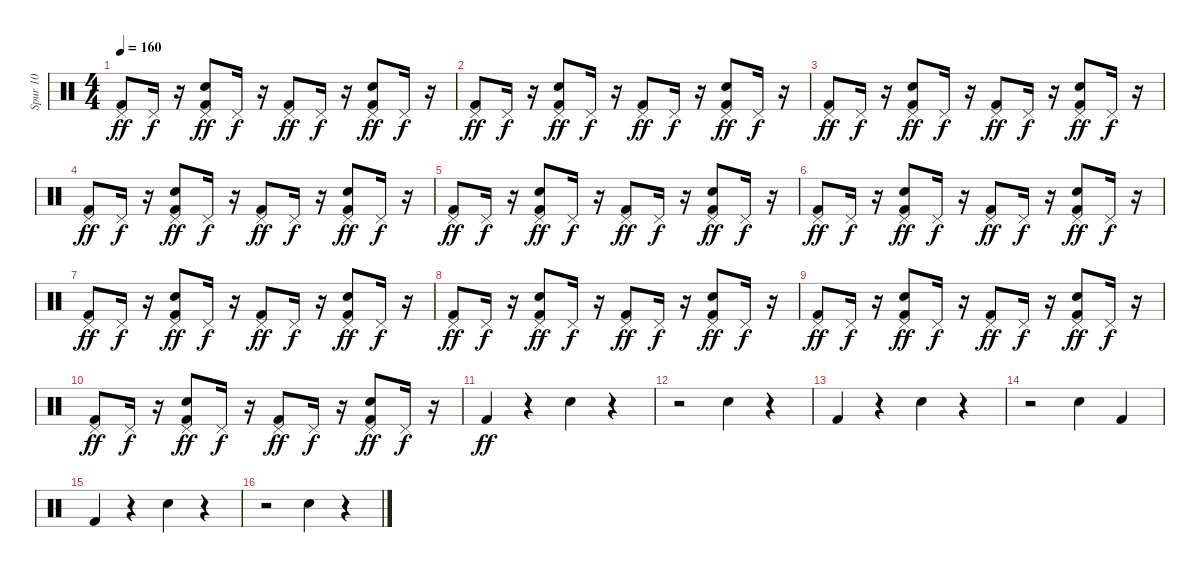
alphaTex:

\track ("Spur 10" "Spur 10") {instrument percussion}
\staff {score}
\articulation defaults
\ts (4 4)
\tempo 160
\clef neutral
\ks c
("Kick (hit) 2" "Pedal Hi-Hat (hit)").8{dy ff} "Pedal Hi-Hat (hit)".16{dy f} r.16 ("Snare (hit) 2" "Kick (hit) 2" "Pedal Hi-Hat (hit)").8{dy ff} "Pedal Hi-Hat (hit)".16{dy f} r.16 ("Kick (hit) 2" "Pedal Hi-Hat (hit)").8{dy ff} "Pedal Hi-Hat (hit)".16{dy f} r.16 ("Kick (hit) 2" "Snare (hit) 2" "Pedal Hi-Hat (hit)").8{dy ff} "Pedal Hi-Hat (hit)".16{dy f} r.16 |
("Kick (hit) 2" "Pedal Hi-Hat (hit)").8{dy ff} "Pedal Hi-Hat (hit)".16{dy f} r.16 ("Snare (hit) 2" "Kick (hit) 2" "Pedal Hi-Hat (hit)").8{dy ff} "Pedal Hi-Hat (hit)".16{dy f} r.16 ("Kick (hit) 2" "Pedal Hi-Hat (hit)").8{dy ff} "Pedal Hi-Hat (hit)".16{dy f} r.16 ("Kick (hit) 2" "Snare (hit) 2" "Pedal Hi-Hat (hit)").8{dy ff} "Pedal Hi-Hat (hit)".16{dy f} r.16 |
("Kick (hit) 2" "Pedal Hi-Hat (hit)").8{dy ff} "Pedal Hi-Hat (hit)".16{dy f} r.16 ("Kick (hit) 2" "Snare (hit) 2" "Pedal Hi-Hat (hit)").8{dy ff} "Pedal Hi-Hat (hit)".16{dy f} r.16 ("Kick (hit) 2" "Pedal Hi-Hat (hit)").8{dy ff} "Pedal Hi-Hat (hit)".16{dy f} r.16 ("Kick (hit) 2" "Snare (hit) 2" "Pedal Hi-Hat (hit)").8{dy ff} "Pedal Hi-Hat (hit)".16{dy f} r.16 |
("Kick (hit) 2" "Pedal Hi-Hat (hit)").8{dy ff} "Pedal Hi-Hat (hit)".16{dy f} r.16 ("Kick (hit) 2" "Snare (hit) 2" "Pedal Hi-Hat (hit)").8{dy ff} "Pedal Hi-Hat (hit)".16{dy f} r.16 ("Kick (hit) 2" "Pedal Hi-Hat (hit)").8{dy ff} "Pedal Hi-Hat (hit)".16{dy f} r.16 ("Kick (hit) 2" "Snare (hit) 2" "Pedal Hi-Hat (hit)").8{dy ff} "Pedal Hi-Hat (hit)".16{dy f} r.16 |
("Kick (hit) 2" "Pedal Hi-Hat (hit)").8{dy ff} "Pedal Hi-Hat (hit)".16{dy f} r.16 ("Kick (hit) 2" "Snare (hit) 2" "Pedal Hi-Hat (hit)").8{dy ff} "Pedal Hi-Hat (hit)".16{dy f} r.16 ("Kick (hit) 2" "Pedal Hi-Hat (hit)").8{dy ff} "Pedal Hi-Hat (hit)".16{dy f} r.16 ("Snare (hit) 2" "Kick (hit) 2" "Pedal Hi-Hat (hit)").8{dy ff} "Pedal Hi-Hat (hit)".16{dy f} r.16 |
("Kick (hit) 2" "Pedal Hi-Hat (hit)").8{dy ff} "Pedal Hi-Hat (hit)".16{dy f} r.16 ("Kick (hit) 2" "Snare (hit) 2" "Pedal Hi-Hat (hit)").8{dy ff} "Pedal Hi-Hat (hit)".16{dy f} r.16 ("Kick (hit) 2" "Pedal Hi-Hat (hit)").8{dy ff} "Pedal Hi-Hat (hit)".16{dy f} r.16 ("Kick (hit) 2" "Snare (hit) 2" "Pedal Hi-Hat (hit)").8{dy ff} "Pedal Hi-Hat (hit)".16{dy f} r.16 |
("Kick (hit) 2" "Pedal Hi-Hat (hit)").8{dy ff} "Pedal Hi-Hat (hit)".16{dy f} r.16 ("Kick (hit) 2" "Snare (hit) 2" "Pedal Hi-Hat (hit)").8{dy ff} "Pedal Hi-Hat (hit)".16{dy f} r.16 ("Kick (hit) 2" "Pedal Hi-Hat (hit)").8{dy ff} "Pedal Hi-Hat (hit)".16{dy f} r.16 ("Snare (hit) 2" "Kick (hit) 2" "Pedal Hi-Hat (hit)").8{dy ff} "Pedal Hi-Hat (hit)".16{dy f} r.16 |
("Kick (hit) 2" "Pedal Hi-Hat (hit)").8{dy ff} "Pedal Hi-Hat (hit)".16{dy f} r.16 ("Snare (hit) 2" "Kick (hit) 2" "Pedal Hi-Hat (hit)").8{dy ff} "Pedal Hi-Hat (hit)".16{dy f} r.16 ("Kick (hit) 2" "Pedal Hi-Hat (hit)").8{dy ff} "Pedal Hi-Hat (hit)".16{dy f} r.16 ("Kick (hit) 2" "Snare (hit) 2" "Pedal Hi-Hat (hit)").8{dy ff} "Pedal Hi-Hat (hit)".16{dy f} r.16 |
("Kick (hit) 2" "Pedal Hi-Hat (hit)").8{dy ff} "Pedal Hi-Hat (hit)".16{dy f} r.16 ("Snare (hit) 2" "Kick (hit) 2" "Pedal Hi-Hat (hit)").8{dy ff} "Pedal Hi-Hat (hit)".16{dy f} r.16 ("Kick (hit) 2" "Pedal Hi-Hat (hit)").8{dy ff} "Pedal Hi-Hat (hit)".16{dy f} r.16 ("Kick (hit) 2" "Snare (hit) 2" "Pedal Hi-Hat (hit)").8{dy ff} "Pedal Hi-Hat (hit)".16{dy f} r.16 |
("Kick (hit) 2" "Pedal Hi-Hat (hit)").8{dy ff} "Pedal Hi-Hat (hit)".16{dy f} r.16 ("Kick (hit) 2" "Snare (hit) 2" "Pedal Hi-Hat (hit)").8{dy ff} "Pedal Hi-Hat (hit)".16{dy f} r.16 ("Kick (hit) 2" "Pedal Hi-Hat (hit)").8{dy ff} "Pedal Hi-Hat (hit)".16{dy f} r.16 ("Kick (hit) 2" "Snare (hit) 2" "Pedal Hi-Hat (hit)").8{dy ff} "Pedal Hi-Hat (hit)".16{dy f} r.16 |
"Kick (hit) 2".4{dy ff} r.4 "Snare (hit) 2".4 r.4 |
r.2 "Snare (hit) 2".4 r.4 |
"Kick (hit) 2".4 r.4 "Snare (hit) 2".4 r.4 |
r.2 "Snare (hit) 2".4 "Kick (hit) 2".4 |
"Kick (hit) 2".4 r.4 "Snare (hit) 2".4 r.4 |
r.2 "Snare (hit) 2".4 r.4
